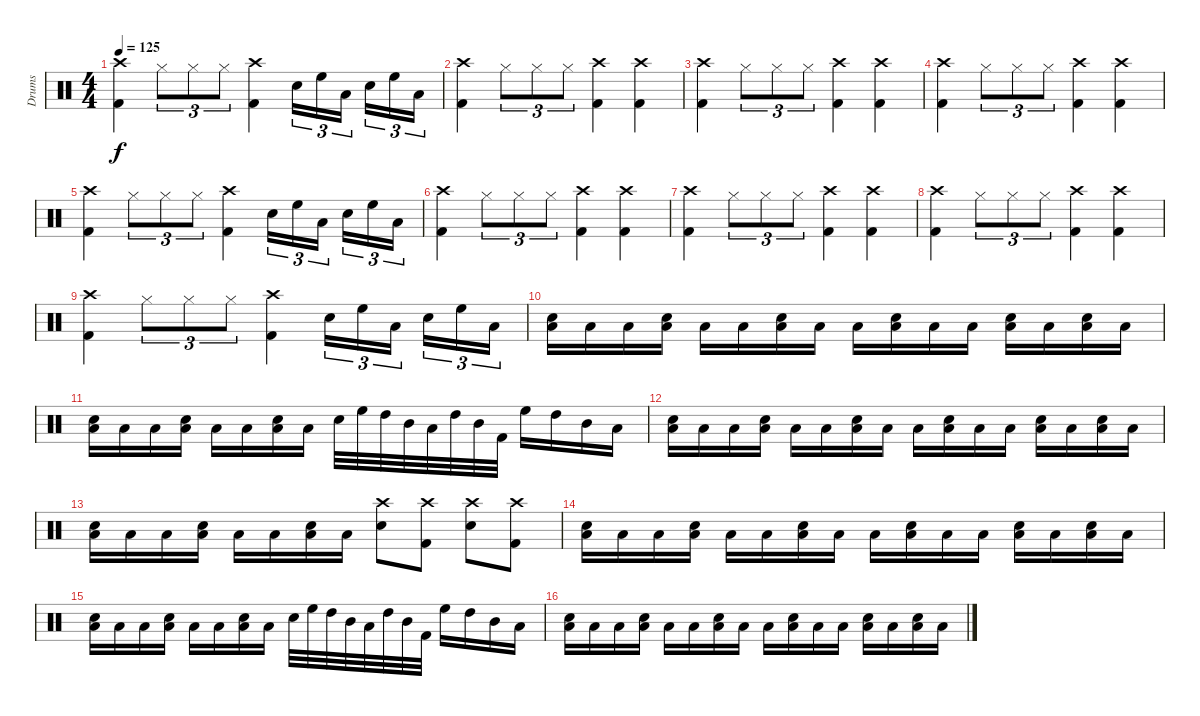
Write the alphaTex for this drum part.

\track ("Drums" "Drums") {instrument percussion}
\staff {score}
\articulation defaults
\ts (4 4)
\tempo 125
\clef neutral
\ks c
("Crash high (hit)" "Kick (hit) 2").4{dy f} "Hi-Hat (closed)".8{tu (3 2)} "Hi-Hat (closed)".8{tu (3 2)} "Hi-Hat (closed)".8{tu (3 2)} ("Crash high (hit)" "Kick (hit) 2").4 "Electric Snare (hit)".16{tu (3 2)} "High Floor Tom (hit)".16{tu (3 2)} "Low Tom (hit)".16{tu (3 2) beam splitsecondary} "Electric Snare (hit)".16{tu (3 2)} "High Floor Tom (hit)".16{tu (3 2)} "Low Tom (hit)".16{tu (3 2)} |
("Crash high (hit)" "Kick (hit) 2").4 "Hi-Hat (closed)".8{tu (3 2)} "Hi-Hat (closed)".8{tu (3 2)} "Hi-Hat (closed)".8{tu (3 2)} ("Crash high (hit)" "Kick (hit) 2").4 ("Crash high (hit)" "Kick (hit) 2").4 |
("Crash high (hit)" "Kick (hit) 2").4 "Hi-Hat (closed)".8{tu (3 2)} "Hi-Hat (closed)".8{tu (3 2)} "Hi-Hat (closed)".8{tu (3 2)} ("Crash high (hit)" "Kick (hit) 2").4 ("Crash high (hit)" "Kick (hit) 2").4 |
("Crash high (hit)" "Kick (hit) 2").4 "Hi-Hat (closed)".8{tu (3 2)} "Hi-Hat (closed)".8{tu (3 2)} "Hi-Hat (closed)".8{tu (3 2)} ("Crash high (hit)" "Kick (hit) 2").4 ("Crash high (hit)" "Kick (hit) 2").4 |
("Crash high (hit)" "Kick (hit) 2").4 "Hi-Hat (closed)".8{tu (3 2)} "Hi-Hat (closed)".8{tu (3 2)} "Hi-Hat (closed)".8{tu (3 2)} ("Crash high (hit)" "Kick (hit) 2").4 "Electric Snare (hit)".16{tu (3 2)} "High Floor Tom (hit)".16{tu (3 2)} "Low Tom (hit)".16{tu (3 2) beam splitsecondary} "Electric Snare (hit)".16{tu (3 2)} "High Floor Tom (hit)".16{tu (3 2)} "Low Tom (hit)".16{tu (3 2)} |
("Crash high (hit)" "Kick (hit) 2").4 "Hi-Hat (closed)".8{tu (3 2)} "Hi-Hat (closed)".8{tu (3 2)} "Hi-Hat (closed)".8{tu (3 2)} ("Crash high (hit)" "Kick (hit) 2").4 ("Crash high (hit)" "Kick (hit) 2").4 |
("Crash high (hit)" "Kick (hit) 2").4 "Hi-Hat (closed)".8{tu (3 2)} "Hi-Hat (closed)".8{tu (3 2)} "Hi-Hat (closed)".8{tu (3 2)} ("Crash high (hit)" "Kick (hit) 2").4 ("Crash high (hit)" "Kick (hit) 2").4 |
("Crash high (hit)" "Kick (hit) 2").4 "Hi-Hat (closed)".8{tu (3 2)} "Hi-Hat (closed)".8{tu (3 2)} "Hi-Hat (closed)".8{tu (3 2)} ("Crash high (hit)" "Kick (hit) 2").4 ("Crash high (hit)" "Kick (hit) 2").4 |
("Crash high (hit)" "Kick (hit) 2").4 "Hi-Hat (closed)".8{tu (3 2)} "Hi-Hat (closed)".8{tu (3 2)} "Hi-Hat (closed)".8{tu (3 2)} ("Crash high (hit)" "Kick (hit) 2").4 "Electric Snare (hit)".16{tu (3 2)} "High Floor Tom (hit)".16{tu (3 2)} "Low Tom (hit)".16{tu (3 2) beam splitsecondary} "Electric Snare (hit)".16{tu (3 2)} "High Floor Tom (hit)".16{tu (3 2)} "Low Tom (hit)".16{tu (3 2)} |
("Low Floor Tom (hit)" "Electric Snare (hit)").16 "Low Floor Tom (hit)".16 "Low Floor Tom (hit)".16 ("Low Floor Tom (hit)" "Electric Snare (hit)").16 "Low Floor Tom (hit)".16 "Low Floor Tom (hit)".16 ("Low Floor Tom (hit)" "Electric Snare (hit)").16 "Low Floor Tom (hit)".16 "Low Floor Tom (hit)".16 ("Low Floor Tom (hit)" "Electric Snare (hit)").16 "Low Floor Tom (hit)".16 "Low Floor Tom (hit)".16 ("Low Floor Tom (hit)" "Electric Snare (hit)").16 "Low Floor Tom (hit)".16 ("Low Floor Tom (hit)" "Electric Snare (hit)").16 "Low Floor Tom (hit)".16 |
("Low Floor Tom (hit)" "Electric Snare (hit)").16 "Low Floor Tom (hit)".16 "Low Floor Tom (hit)".16 ("Low Floor Tom (hit)" "Electric Snare (hit)").16 "Low Floor Tom (hit)".16 "Low Floor Tom (hit)".16 ("Low Floor Tom (hit)" "Electric Snare (hit)").16 "Low Floor Tom (hit)".16 "Electric Snare (hit)".32 "High Floor Tom (hit)".32 "High Tom (hit)".32 "Mid Tom (hit)".32 "Low Tom (hit)".32 "High Tom (hit)".32 "Mid Tom (hit)".32 "Kick (hit) 2".32 "High Floor Tom (hit)".16 "High Tom (hit)".16 "Mid Tom (hit)".16 "Low Tom (hit)".16 |
("Low Floor Tom (hit)" "Electric Snare (hit)").16 "Low Floor Tom (hit)".16 "Low Floor Tom (hit)".16 ("Low Floor Tom (hit)" "Electric Snare (hit)").16 "Low Floor Tom (hit)".16 "Low Floor Tom (hit)".16 ("Low Floor Tom (hit)" "Electric Snare (hit)").16 "Low Floor Tom (hit)".16 "Low Floor Tom (hit)".16 ("Low Floor Tom (hit)" "Electric Snare (hit)").16 "Low Floor Tom (hit)".16 "Low Floor Tom (hit)".16 ("Low Floor Tom (hit)" "Electric Snare (hit)").16 "Low Floor Tom (hit)".16 ("Low Floor Tom (hit)" "Electric Snare (hit)").16 "Low Floor Tom (hit)".16 |
("Low Floor Tom (hit)" "Electric Snare (hit)").16 "Low Floor Tom (hit)".16 "Low Floor Tom (hit)".16 ("Low Floor Tom (hit)" "Electric Snare (hit)").16 "Low Floor Tom (hit)".16 "Low Floor Tom (hit)".16 ("Low Floor Tom (hit)" "Electric Snare (hit)").16 "Low Floor Tom (hit)".16 ("Crash high (hit)" "Electric Snare (hit)").8 ("Crash high (hit)" "Kick (hit) 2").8 ("Crash high (hit)" "Electric Snare (hit)").8 ("Crash high (hit)" "Kick (hit) 2").8 |
("Low Floor Tom (hit)" "Electric Snare (hit)").16 "Low Floor Tom (hit)".16 "Low Floor Tom (hit)".16 ("Low Floor Tom (hit)" "Electric Snare (hit)").16 "Low Floor Tom (hit)".16 "Low Floor Tom (hit)".16 ("Low Floor Tom (hit)" "Electric Snare (hit)").16 "Low Floor Tom (hit)".16 "Low Floor Tom (hit)".16 ("Low Floor Tom (hit)" "Electric Snare (hit)").16 "Low Floor Tom (hit)".16 "Low Floor Tom (hit)".16 ("Low Floor Tom (hit)" "Electric Snare (hit)").16 "Low Floor Tom (hit)".16 ("Low Floor Tom (hit)" "Electric Snare (hit)").16 "Low Floor Tom (hit)".16 |
("Low Floor Tom (hit)" "Electric Snare (hit)").16 "Low Floor Tom (hit)".16 "Low Floor Tom (hit)".16 ("Low Floor Tom (hit)" "Electric Snare (hit)").16 "Low Floor Tom (hit)".16 "Low Floor Tom (hit)".16 ("Low Floor Tom (hit)" "Electric Snare (hit)").16 "Low Floor Tom (hit)".16 "Electric Snare (hit)".32 "High Floor Tom (hit)".32 "High Tom (hit)".32 "Mid Tom (hit)".32 "Low Tom (hit)".32 "High Tom (hit)".32 "Mid Tom (hit)".32 "Kick (hit) 2".32 "High Floor Tom (hit)".16 "High Tom (hit)".16 "Mid Tom (hit)".16 "Low Tom (hit)".16 |
("Low Floor Tom (hit)" "Electric Snare (hit)").16 "Low Floor Tom (hit)".16 "Low Floor Tom (hit)".16 ("Low Floor Tom (hit)" "Electric Snare (hit)").16 "Low Floor Tom (hit)".16 "Low Floor Tom (hit)".16 ("Low Floor Tom (hit)" "Electric Snare (hit)").16 "Low Floor Tom (hit)".16 "Low Floor Tom (hit)".16 ("Low Floor Tom (hit)" "Electric Snare (hit)").16 "Low Floor Tom (hit)".16 "Low Floor Tom (hit)".16 ("Low Floor Tom (hit)" "Electric Snare (hit)").16 "Low Floor Tom (hit)".16 ("Low Floor Tom (hit)" "Electric Snare (hit)").16 "Low Floor Tom (hit)".16
